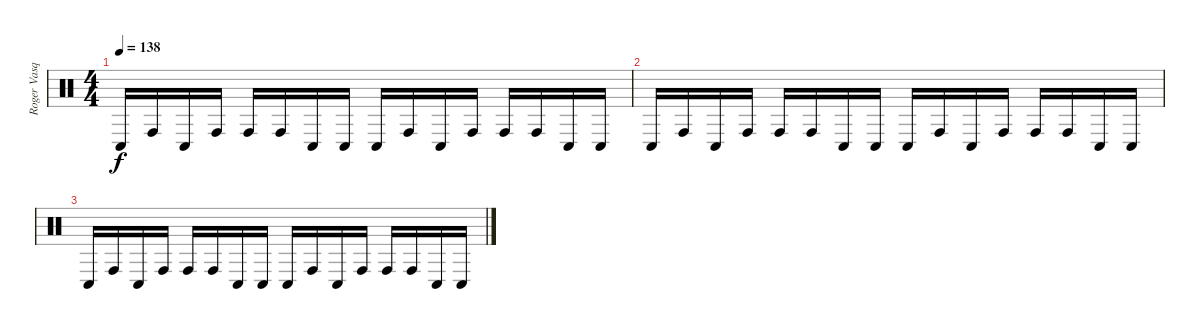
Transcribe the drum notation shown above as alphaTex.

\track ("Roger Vasquez - Percussion" "Roger Vasq") {instrument percussion}
\staff {score}
\articulation defaults
\ts (4 4)
\tempo 138
\clef neutral
\ks c "Conga low (hit)".16{dy f} "Conga high (hit)".16 "Conga low (hit)".16 "Conga high (hit)".16 "Conga high (hit)".16 "Conga high (hit)".16 "Conga low (hit)".16 "Conga low (hit)".16 "Conga low (hit)".16 "Conga high (hit)".16 "Conga low (hit)".16 "Conga high (hit)".16 "Conga high (hit)".16 "Conga high (hit)".16 "Conga low (hit)".16 "Conga low (hit)".16
|
"Conga low (hit)".16 "Conga high (hit)".16 "Conga low (hit)".16 "Conga high (hit)".16 "Conga high (hit)".16 "Conga high (hit)".16 "Conga low (hit)".16 "Conga low (hit)".16 "Conga low (hit)".16 "Conga high (hit)".16 "Conga low (hit)".16 "Conga high (hit)".16 "Conga high (hit)".16 "Conga high (hit)".16 "Conga low (hit)".16 "Conga low (hit)".16 |
"Conga low (hit)".16 "Conga high (hit)".16 "Conga low (hit)".16 "Conga high (hit)".16 "Conga high (hit)".16 "Conga high (hit)".16 "Conga low (hit)".16 "Conga low (hit)".16 "Conga low (hit)".16 "Conga high (hit)".16 "Conga low (hit)".16 "Conga high (hit)".16 "Conga high (hit)".16 "Conga high (hit)".16 "Conga low (hit)".16 "Conga low (hit)".16
